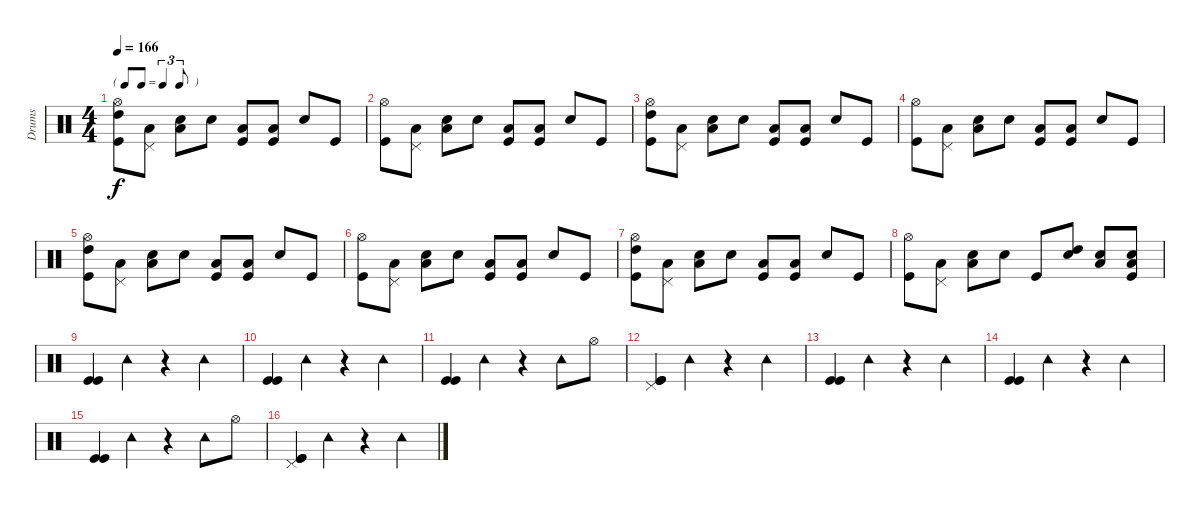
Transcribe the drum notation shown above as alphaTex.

\track ("Drums" "Drums") {instrument percussion}
\staff {score}
\articulation defaults
\ts (4 4)
\tf triplet8th
\tempo 166
\clef neutral
\ks c
("Hi-Hat (open)" "High Tom (hit)" "Kick (hit)").8{dy f} ("Pedal Hi-Hat (hit)" "Low Tom (hit)").8 ("Snare (hit) 2" "Low Floor Tom (hit)").8 "Snare (hit) 2".8 ("Low Tom (hit)" "Kick (hit)").8 ("Low Floor Tom (hit)" "Kick (hit)").8 "Snare (hit) 2".8 "Kick (hit)".8 |
("Hi-Hat (open)" "Kick (hit)").8 ("Pedal Hi-Hat (hit)" "Low Tom (hit)").8 ("Snare (hit) 2" "Low Floor Tom (hit)").8 "Snare (hit) 2".8 ("Low Tom (hit)" "Kick (hit)").8 ("Low Floor Tom (hit)" "Kick (hit)").8 "Snare (hit) 2".8 "Kick (hit)".8 |
("Hi-Hat (open)" "High Tom (hit)" "Kick (hit)").8 ("Pedal Hi-Hat (hit)" "Low Tom (hit)").8 ("Snare (hit) 2" "Low Floor Tom (hit)").8 "Snare (hit) 2".8 ("Low Tom (hit)" "Kick (hit)").8 ("Low Floor Tom (hit)" "Kick (hit)").8 "Snare (hit) 2".8 "Kick (hit)".8 |
("Hi-Hat (open)" "Kick (hit)").8 ("Pedal Hi-Hat (hit)" "Low Tom (hit)").8 ("Snare (hit) 2" "Low Floor Tom (hit)").8 "Snare (hit) 2".8 ("Low Tom (hit)" "Kick (hit)").8 ("Low Floor Tom (hit)" "Kick (hit)").8 "Snare (hit) 2".8 "Kick (hit)".8 |
("Hi-Hat (open)" "High Tom (hit)" "Kick (hit)").8 ("Pedal Hi-Hat (hit)" "Low Tom (hit)").8 ("Snare (hit) 2" "Low Floor Tom (hit)").8 "Snare (hit) 2".8 ("Low Tom (hit)" "Kick (hit)").8 ("Low Floor Tom (hit)" "Kick (hit)").8 "Snare (hit) 2".8 "Kick (hit)".8 |
("Hi-Hat (open)" "Kick (hit)").8 ("Pedal Hi-Hat (hit)" "Low Tom (hit)").8 ("Snare (hit) 2" "Low Floor Tom (hit)").8 "Snare (hit) 2".8 ("Low Tom (hit)" "Kick (hit)").8 ("Low Floor Tom (hit)" "Kick (hit)").8 "Snare (hit) 2".8 "Kick (hit)".8 |
("Hi-Hat (open)" "High Tom (hit)" "Kick (hit)").8 ("Pedal Hi-Hat (hit)" "Low Tom (hit)").8 ("Snare (hit) 2" "Low Floor Tom (hit)").8 "Snare (hit) 2".8 ("Low Tom (hit)" "Kick (hit)").8 ("Low Floor Tom (hit)" "Kick (hit)").8 "Snare (hit) 2".8 "Kick (hit)".8 |
("Hi-Hat (open)" "Kick (hit)").8 ("Pedal Hi-Hat (hit)" "Low Tom (hit)").8 ("Snare (hit) 2" "Low Floor Tom (hit)").8 "Snare (hit) 2".8 "Kick (hit)".8 ("Snare (hit) 2" "High Tom (hit)").8 ("Snare (hit) 2" "Low Tom (hit)").8 ("Snare (hit) 2" "Low Floor Tom (hit)" "Kick (hit)").8 |
("Kick (hit)" "Kick (hit)").4 "Tambourine (hit)".4 r.4 "Tambourine (hit)".4 |
("Kick (hit)" "Kick (hit)").4 "Tambourine (hit)".4 r.4 "Tambourine (hit)".4 |
("Kick (hit)" "Kick (hit)").4 "Tambourine (hit)".4 r.4 "Tambourine (hit)".8 "Hi-Hat (open)".8 |
("Pedal Hi-Hat (hit)" "Kick (hit)" "Kick (hit)").4 "Tambourine (hit)".4 r.4 "Tambourine (hit)".4 |
("Kick (hit)" "Kick (hit)").4 "Tambourine (hit)".4 r.4 "Tambourine (hit)".4 |
("Kick (hit)" "Kick (hit)").4 "Tambourine (hit)".4 r.4 "Tambourine (hit)".4 |
("Kick (hit)" "Kick (hit)").4 "Tambourine (hit)".4 r.4 "Tambourine (hit)".8 "Hi-Hat (open)".8 |
("Pedal Hi-Hat (hit)" "Kick (hit)" "Kick (hit)").4 "Tambourine (hit)".4 r.4 "Tambourine (hit)".4
